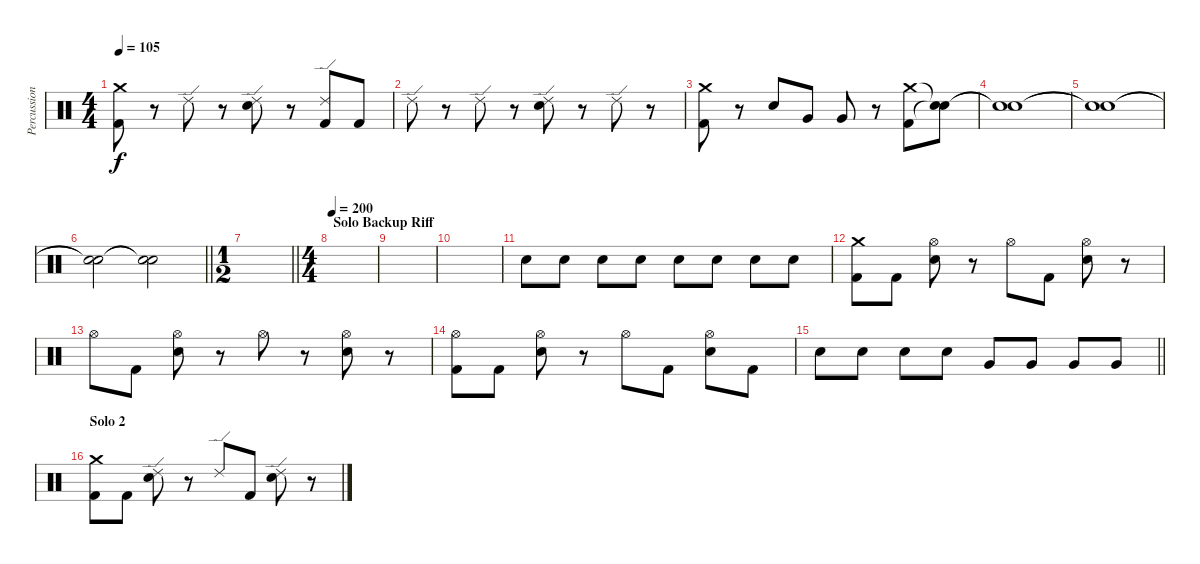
\track ("Percussion" "Percussion") {instrument percussion}
\staff {score}
\articulation defaults
\ts (4 4)
\tempo 105
\clef neutral
\ks c
("Crash medium (hit)" "Kick (hit) 2").8{dy f} r.8 "Ride (edge) 2".8 r.8 ("Ride (edge) 2" "Electric Snare (hit)").8 r.8 ("Ride (edge) 2" "Kick (hit) 2").8 "Kick (hit) 2".8 |
"Ride (edge) 2".8 r.8 "Ride (edge) 2".8 r.8 ("Ride (edge) 2" "Electric Snare (hit)").8 r.8 "Ride (edge) 2".8 r.8 |
("Kick (hit) 2" "Crash medium (hit)").8 r.8 "Electric Snare (hit)".8 "Very Low Tom (hit)".8 "Very Low Tom (hit)".8 r.8 ("Crash medium (hit)" "Kick (hit) 2").8 ("Snare (hit)"{t} "Snare (hit)"{t}).8 |
("Snare (hit)"{t} "Snare (hit)"{t}).1 |
("Snare (hit)"{t} "Snare (hit)"{t}).1 |
\barLineRight lightlight
("Snare (hit)"{t} "Snare (hit)"{t}).2 ("Snare (hit)"{t} "Snare (hit)"{t}).2 |
\ts (1 2)
\barLineRight lightlight
|
\ts (4 4)
\section ("" "Solo Backup Riff")
\tempo 200
|
|
|
"Electric Snare (hit)".8 "Electric Snare (hit)".8 "Electric Snare (hit)".8 "Electric Snare (hit)".8 "Electric Snare (hit)".8 "Electric Snare (hit)".8 "Electric Snare (hit)".8 "Electric Snare (hit)".8 |
("Crash medium (hit)" "Kick (hit) 2").8 "Kick (hit) 2".8 ("Hi-Hat (open)" "Electric Snare (hit)").8 r.8 "Hi-Hat (open)".8 "Kick (hit) 2".8 ("Hi-Hat (open)" "Electric Snare (hit)").8 r.8 |
"Hi-Hat (open)".8 "Kick (hit) 2".8 ("Hi-Hat (open)" "Electric Snare (hit)").8 r.8 "Hi-Hat (open)".8 r.8 ("Hi-Hat (open)" "Electric Snare (hit)").8 r.8 |
("Hi-Hat (open)" "Kick (hit) 2").8 "Kick (hit) 2".8 ("Hi-Hat (open)" "Electric Snare (hit)").8 r.8 "Hi-Hat (open)".8 "Kick (hit) 2".8 ("Hi-Hat (open)" "Electric Snare (hit)").8 "Kick (hit) 2".8 |
\barLineRight lightlight "Electric Snare (hit)".8 "Electric Snare (hit)".8 "Electric Snare (hit)".8 "Electric Snare (hit)".8 "Very Low Tom (hit)".8 "Very Low Tom (hit)".8 "Very Low Tom (hit)".8 "Very Low Tom (hit)".8
|
\section ("" "Solo 2")
("Crash medium (hit)" "Kick (hit) 2").8 "Kick (hit) 2".8 ("Ride (edge) 2" "Electric Snare (hit)").8 r.8 "Ride (edge) 2".8 "Kick (hit) 2".8 ("Ride (edge) 2" "Electric Snare (hit)").8 r.8
